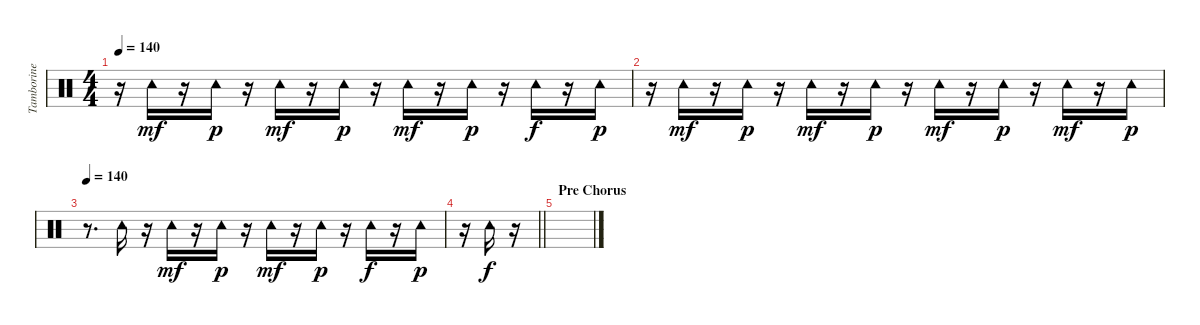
\track ("Tamborine" "Tamborine") {instrument percussion}
\staff {score}
\articulation defaults
\ts (4 4)
\tempo 140
\clef neutral
\ks c
r.16{dy p} "Tambourine (hit)".16{dy mf} r.16 "Tambourine (hit)".16{dy p} r.16 "Tambourine (hit)".16{dy mf} r.16 "Tambourine (hit)".16{dy p} r.16 "Tambourine (hit)".16{dy mf} r.16 "Tambourine (hit)".16{dy p} r.16 "Tambourine (hit)".16{dy f} r.16 "Tambourine (hit)".16{dy p} |
r.16 "Tambourine (hit)".16{dy mf} r.16 "Tambourine (hit)".16{dy p} r.16 "Tambourine (hit)".16{dy mf} r.16 "Tambourine (hit)".16{dy p} r.16 "Tambourine (hit)".16{dy mf} r.16 "Tambourine (hit)".16{dy p} r.16 "Tambourine (hit)".16{dy mf} r.16 "Tambourine (hit)".16{dy p} |
\tempo 140
r.8{d} "Tambourine (hit)".16 r.16 "Tambourine (hit)".16{dy mf} r.16 "Tambourine (hit)".16{dy p} r.16 "Tambourine (hit)".16{dy mf} r.16 "Tambourine (hit)".16{dy p} r.16 "Tambourine (hit)".16{dy f} r.16 "Tambourine (hit)".16{dy p} |
\barLineRight lightlight
r.16 "Tambourine (hit)".16{dy f} r.16 |
\section ("" "Pre Chorus")
